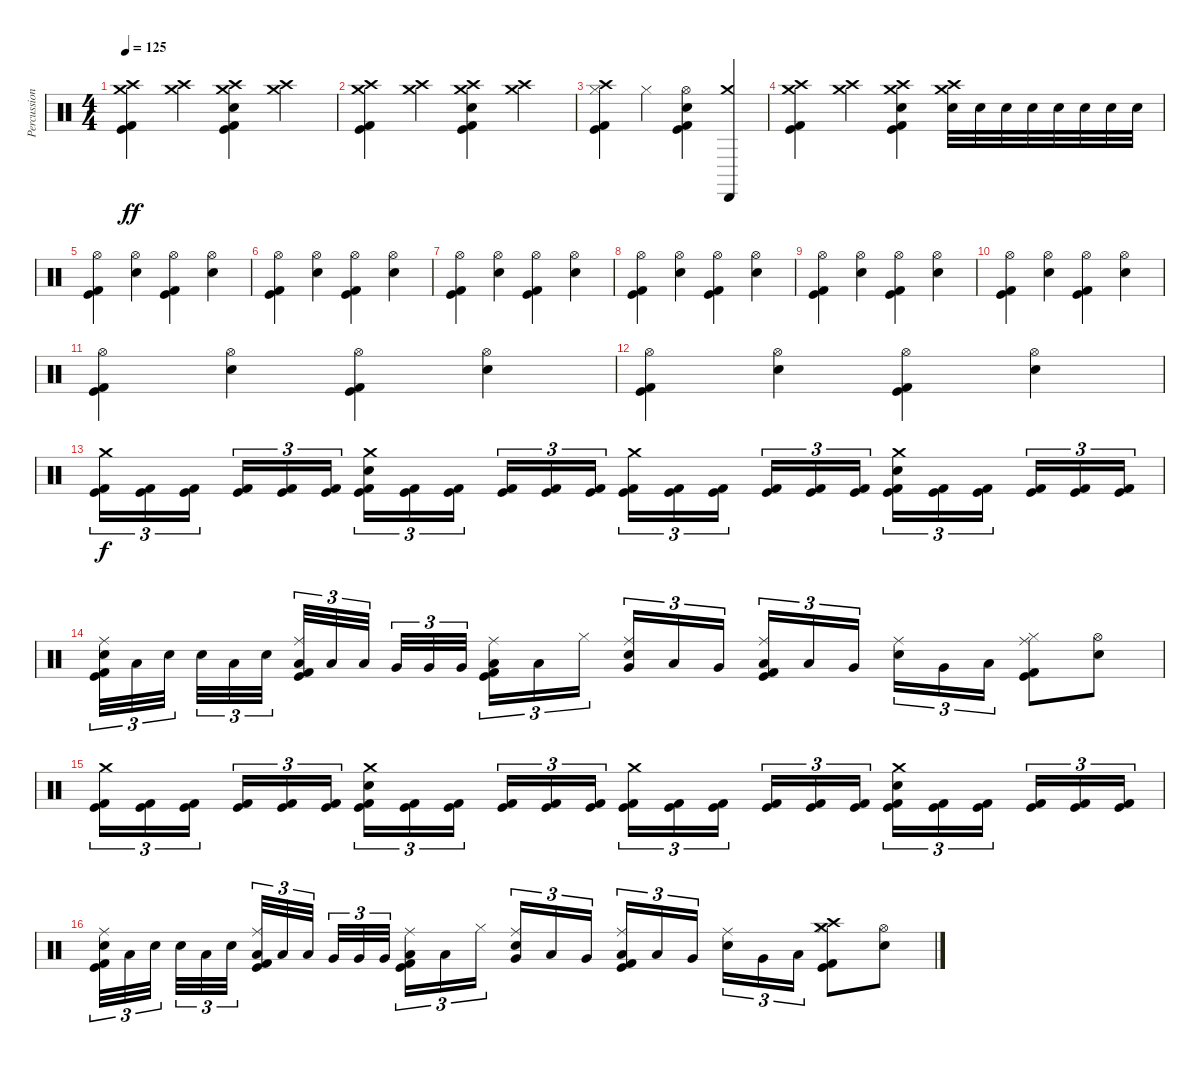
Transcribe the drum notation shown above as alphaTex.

\track ("Percussion" "Percussion") {instrument percussion}
\staff {score}
\articulation defaults
\ts (4 4)
\tempo 125
\clef neutral
\ks c
("Crash medium (hit)" "Crash high (hit)" "Kick (hit) 2" "Kick (hit)").4{dy ff} ("Crash medium (hit)" "Crash high (hit)").4 ("Crash medium (hit)" "Crash high (hit)" "Electric Snare (hit)" "Kick (hit) 2" "Kick (hit)").4 ("Crash medium (hit)" "Crash high (hit)").4 |
("Crash medium (hit)" "Crash high (hit)" "Kick (hit) 2" "Kick (hit)").4 ("Crash medium (hit)" "Crash high (hit)").4 ("Crash medium (hit)" "Crash high (hit)" "Electric Snare (hit)" "Kick (hit) 2" "Kick (hit)").4 ("Crash medium (hit)" "Crash high (hit)").4 |
("Crash high (hit)" "Hi-Hat (closed)" "Kick (hit) 2" "Kick (hit)").4 "Hi-Hat (closed)".4 ("Hi-Hat (open)" "Electric Snare (hit)" "Kick (hit) 2" "Kick (hit)").4 ("Crash medium (hit)" "Cabasa (hit)").4 |
("Crash medium (hit)" "Crash high (hit)" "Kick (hit) 2" "Kick (hit)").4 ("Crash medium (hit)" "Crash high (hit)").4 ("Crash medium (hit)" "Crash high (hit)" "Electric Snare (hit)" "Kick (hit) 2" "Kick (hit)").4 ("Crash medium (hit)" "Crash high (hit)" "Electric Snare (hit)").32 "Electric Snare (hit)".32 "Electric Snare (hit)".32 "Electric Snare (hit)".32 "Electric Snare (hit)".32 "Electric Snare (hit)".32 "Electric Snare (hit)".32 "Electric Snare (hit)".32 |
("Hi-Hat (open)" "Kick (hit) 2" "Kick (hit)").4 ("Hi-Hat (open)" "Electric Snare (hit)").4 ("Hi-Hat (open)" "Kick (hit) 2" "Kick (hit)").4 ("Hi-Hat (open)" "Electric Snare (hit)").4 |
("Hi-Hat (open)" "Kick (hit) 2" "Kick (hit)").4 ("Hi-Hat (open)" "Electric Snare (hit)").4 ("Hi-Hat (open)" "Kick (hit) 2" "Kick (hit)").4 ("Hi-Hat (open)" "Electric Snare (hit)").4 |
("Hi-Hat (open)" "Kick (hit) 2" "Kick (hit)").4 ("Hi-Hat (open)" "Electric Snare (hit)").4 ("Hi-Hat (open)" "Kick (hit) 2" "Kick (hit)").4 ("Hi-Hat (open)" "Electric Snare (hit)").4 |
("Hi-Hat (open)" "Kick (hit) 2" "Kick (hit)").4 ("Hi-Hat (open)" "Electric Snare (hit)").4 ("Hi-Hat (open)" "Kick (hit) 2" "Kick (hit)").4 ("Hi-Hat (open)" "Electric Snare (hit)").4 |
("Hi-Hat (open)" "Kick (hit) 2" "Kick (hit)").4 ("Hi-Hat (open)" "Electric Snare (hit)").4 ("Hi-Hat (open)" "Kick (hit) 2" "Kick (hit)").4 ("Hi-Hat (open)" "Electric Snare (hit)").4 |
("Hi-Hat (open)" "Kick (hit) 2" "Kick (hit)").4 ("Hi-Hat (open)" "Electric Snare (hit)").4 ("Hi-Hat (open)" "Kick (hit) 2" "Kick (hit)").4 ("Hi-Hat (open)" "Electric Snare (hit)").4 |
("Hi-Hat (open)" "Kick (hit) 2" "Kick (hit)").4 ("Hi-Hat (open)" "Electric Snare (hit)").4 ("Hi-Hat (open)" "Kick (hit) 2" "Kick (hit)").4 ("Hi-Hat (open)" "Electric Snare (hit)").4 |
("Hi-Hat (open)" "Kick (hit) 2" "Kick (hit)").4 ("Hi-Hat (open)" "Electric Snare (hit)").4 ("Hi-Hat (open)" "Kick (hit) 2" "Kick (hit)").4 ("Hi-Hat (open)" "Electric Snare (hit)").4 |
("Crash medium (hit)" "Kick (hit)" "Kick (hit) 2").16{tu (3 2) dy f} ("Kick (hit)" "Kick (hit) 2").16{tu (3 2)} ("Kick (hit)" "Kick (hit) 2").16{tu (3 2) beam splitsecondary} ("Kick (hit)" "Kick (hit) 2").16{tu (3 2)} ("Kick (hit)" "Kick (hit) 2").16{tu (3 2)} ("Kick (hit)" "Kick (hit) 2").16{tu (3 2)} ("Crash medium (hit)" "Electric Snare (hit)" "Kick (hit)" "Kick (hit) 2").16{tu (3 2)} ("Kick (hit)" "Kick (hit) 2").16{tu (3 2)} ("Kick (hit)" "Kick (hit) 2").16{tu (3 2) beam splitsecondary} ("Kick (hit)" "Kick (hit) 2").16{tu (3 2)} ("Kick (hit)" "Kick (hit) 2").16{tu (3 2)} ("Kick (hit)" "Kick (hit) 2").16{tu (3 2)} ("Crash medium (hit)" "Kick (hit)" "Kick (hit) 2").16{tu (3 2)} ("Kick (hit)" "Kick (hit) 2").16{tu (3 2)} ("Kick (hit)" "Kick (hit) 2").16{tu (3 2) beam splitsecondary} ("Kick (hit)" "Kick (hit) 2").16{tu (3 2)} ("Kick (hit)" "Kick (hit) 2").16{tu (3 2)} ("Kick (hit)" "Kick (hit) 2").16{tu (3 2)} ("Crash medium (hit)" "Electric Snare (hit)" "Kick (hit)" "Kick (hit) 2").16{tu (3 2)} ("Kick (hit)" "Kick (hit) 2").16{tu (3 2)} ("Kick (hit)" "Kick (hit) 2").16{tu (3 2) beam splitsecondary} ("Kick (hit)" "Kick (hit) 2").16{tu (3 2)} ("Kick (hit)" "Kick (hit) 2").16{tu (3 2)} ("Kick (hit)" "Kick (hit) 2").16{tu (3 2)} |
("Electric Snare (hit)" "Kick (hit) 2" "Kick (hit)" "Ride (middle)").32{tu (3 2)} "Low Tom (hit)".32{tu (3 2)} "Electric Snare (hit)".32{tu (3 2) beam splitsecondary} "Electric Snare (hit)".32{tu (3 2)} "Low Tom (hit)".32{tu (3 2)} "Electric Snare (hit)".32{tu (3 2) beam splitsecondary} ("Low Tom (hit)" "Kick (hit) 2" "Kick (hit)" "Ride (middle)").32{tu (3 2)} "Low Tom (hit)".32{tu (3 2)} "Low Tom (hit)".32{tu (3 2) beam splitsecondary} "Very Low Tom (hit)".32{tu (3 2)} "Very Low Tom (hit)".32{tu (3 2)} "Very Low Tom (hit)".32{tu (3 2)} ("Low Floor Tom (hit)" "Kick (hit) 2" "Kick (hit)" "Ride (middle)").16{tu (3 2)} "Low Floor Tom (hit)".16{tu (3 2)} "Hi-Hat (closed)".16{tu (3 2) beam splitsecondary} ("Very Low Tom (hit)" "Electric Snare (hit)" "Ride (middle)").16{tu (3 2)} "Low Tom (hit)".16{tu (3 2)} "Very Low Tom (hit)".16{tu (3 2)} ("Low Floor Tom (hit)" "Kick (hit) 2" "Kick (hit)" "Ride (middle)").16{tu (3 2)} "Low Tom (hit)".16{tu (3 2)} "Very Low Tom (hit)".16{tu (3 2) beam splitsecondary} ("Electric Snare (hit)" "Ride (middle)").16{tu (3 2)} "Very Low Tom (hit)".16{tu (3 2)} "Low Tom (hit)".16{tu (3 2)} ("Hi-Hat (closed)" "Kick (hit) 2" "Kick (hit)" "Ride (middle)").8 ("Hi-Hat (open)" "Electric Snare (hit)").8 |
("Crash medium (hit)" "Kick (hit)" "Kick (hit) 2").16{tu (3 2)} ("Kick (hit)" "Kick (hit) 2").16{tu (3 2)} ("Kick (hit)" "Kick (hit) 2").16{tu (3 2) beam splitsecondary} ("Kick (hit)" "Kick (hit) 2").16{tu (3 2)} ("Kick (hit)" "Kick (hit) 2").16{tu (3 2)} ("Kick (hit)" "Kick (hit) 2").16{tu (3 2)} ("Crash medium (hit)" "Electric Snare (hit)" "Kick (hit)" "Kick (hit) 2").16{tu (3 2)} ("Kick (hit)" "Kick (hit) 2").16{tu (3 2)} ("Kick (hit)" "Kick (hit) 2").16{tu (3 2) beam splitsecondary} ("Kick (hit)" "Kick (hit) 2").16{tu (3 2)} ("Kick (hit)" "Kick (hit) 2").16{tu (3 2)} ("Kick (hit)" "Kick (hit) 2").16{tu (3 2)} ("Crash medium (hit)" "Kick (hit)" "Kick (hit) 2").16{tu (3 2)} ("Kick (hit)" "Kick (hit) 2").16{tu (3 2)} ("Kick (hit)" "Kick (hit) 2").16{tu (3 2) beam splitsecondary} ("Kick (hit)" "Kick (hit) 2").16{tu (3 2)} ("Kick (hit)" "Kick (hit) 2").16{tu (3 2)} ("Kick (hit)" "Kick (hit) 2").16{tu (3 2)} ("Crash medium (hit)" "Electric Snare (hit)" "Kick (hit)" "Kick (hit) 2").16{tu (3 2)} ("Kick (hit)" "Kick (hit) 2").16{tu (3 2)} ("Kick (hit)" "Kick (hit) 2").16{tu (3 2) beam splitsecondary} ("Kick (hit)" "Kick (hit) 2").16{tu (3 2)} ("Kick (hit)" "Kick (hit) 2").16{tu (3 2)} ("Kick (hit)" "Kick (hit) 2").16{tu (3 2)} |
("Electric Snare (hit)" "Kick (hit) 2" "Kick (hit)" "Ride (middle)").32{tu (3 2)} "Low Tom (hit)".32{tu (3 2)} "Electric Snare (hit)".32{tu (3 2) beam splitsecondary} "Electric Snare (hit)".32{tu (3 2)} "Low Tom (hit)".32{tu (3 2)} "Electric Snare (hit)".32{tu (3 2) beam splitsecondary} ("Low Tom (hit)" "Kick (hit) 2" "Kick (hit)" "Ride (middle)").32{tu (3 2)} "Low Tom (hit)".32{tu (3 2)} "Low Tom (hit)".32{tu (3 2) beam splitsecondary} "Very Low Tom (hit)".32{tu (3 2)} "Very Low Tom (hit)".32{tu (3 2)} "Very Low Tom (hit)".32{tu (3 2)} ("Low Floor Tom (hit)" "Kick (hit) 2" "Kick (hit)" "Ride (middle)").16{tu (3 2)} "Low Floor Tom (hit)".16{tu (3 2)} "Hi-Hat (closed)".16{tu (3 2) beam splitsecondary} ("Very Low Tom (hit)" "Electric Snare (hit)" "Ride (middle)").16{tu (3 2)} "Low Tom (hit)".16{tu (3 2)} "Very Low Tom (hit)".16{tu (3 2)} ("Low Floor Tom (hit)" "Kick (hit) 2" "Kick (hit)" "Ride (middle)").16{tu (3 2)} "Low Tom (hit)".16{tu (3 2)} "Very Low Tom (hit)".16{tu (3 2) beam splitsecondary} ("Electric Snare (hit)" "Ride (middle)").16{tu (3 2)} "Very Low Tom (hit)".16{tu (3 2)} "Low Tom (hit)".16{tu (3 2)} ("Crash medium (hit)" "Hi-Hat (closed)" "Kick (hit) 2" "Kick (hit)" "Crash high (hit)").8 ("Hi-Hat (open)" "Electric Snare (hit)").8
